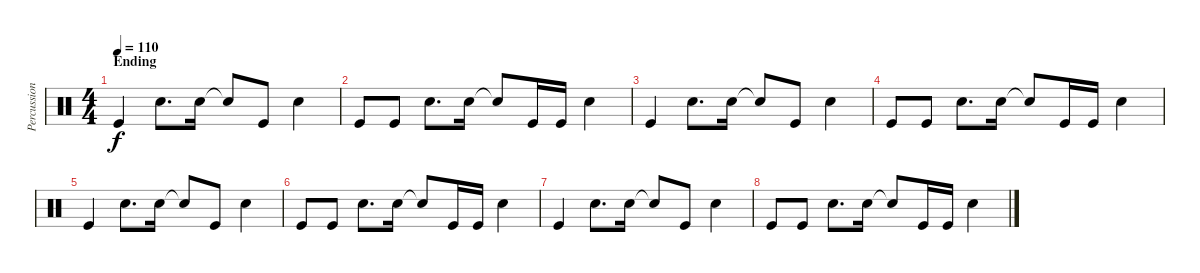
\track ("Percussion" "Percussion") {instrument percussion}
\staff {score}
\articulation defaults
\ts (4 4)
\section ("" "Ending")
\tempo 110
\clef neutral
\ks c "Kick (hit)".4{dy f} "Snare (hit) 2".8{d} "Snare (hit) 2".16 "Snare (hit) 2"{t}.8 "Kick (hit)".8 "Snare (hit) 2".4
|
"Kick (hit)".8 "Kick (hit)".8 "Snare (hit) 2".8{d} "Snare (hit) 2".16 "Snare (hit) 2"{t}.8 "Kick (hit)".16 "Kick (hit)".16 "Snare (hit) 2".4 |
"Kick (hit)".4 "Snare (hit) 2".8{d} "Snare (hit) 2".16 "Snare (hit) 2"{t}.8 "Kick (hit)".8 "Snare (hit) 2".4 |
"Kick (hit)".8 "Kick (hit)".8 "Snare (hit) 2".8{d} "Snare (hit) 2".16 "Snare (hit) 2"{t}.8 "Kick (hit)".16 "Kick (hit)".16 "Snare (hit) 2".4 |
"Kick (hit)".4 "Snare (hit) 2".8{d} "Snare (hit) 2".16 "Snare (hit) 2"{t}.8 "Kick (hit)".8 "Snare (hit) 2".4 |
"Kick (hit)".8 "Kick (hit)".8 "Snare (hit) 2".8{d} "Snare (hit) 2".16 "Snare (hit) 2"{t}.8 "Kick (hit)".16 "Kick (hit)".16 "Snare (hit) 2".4 |
"Kick (hit)".4 "Snare (hit) 2".8{d} "Snare (hit) 2".16 "Snare (hit) 2"{t}.8 "Kick (hit)".8 "Snare (hit) 2".4 |
"Kick (hit)".8 "Kick (hit)".8 "Snare (hit) 2".8{d} "Snare (hit) 2".16 "Snare (hit) 2"{t}.8 "Kick (hit)".16 "Kick (hit)".16 "Snare (hit) 2".4
